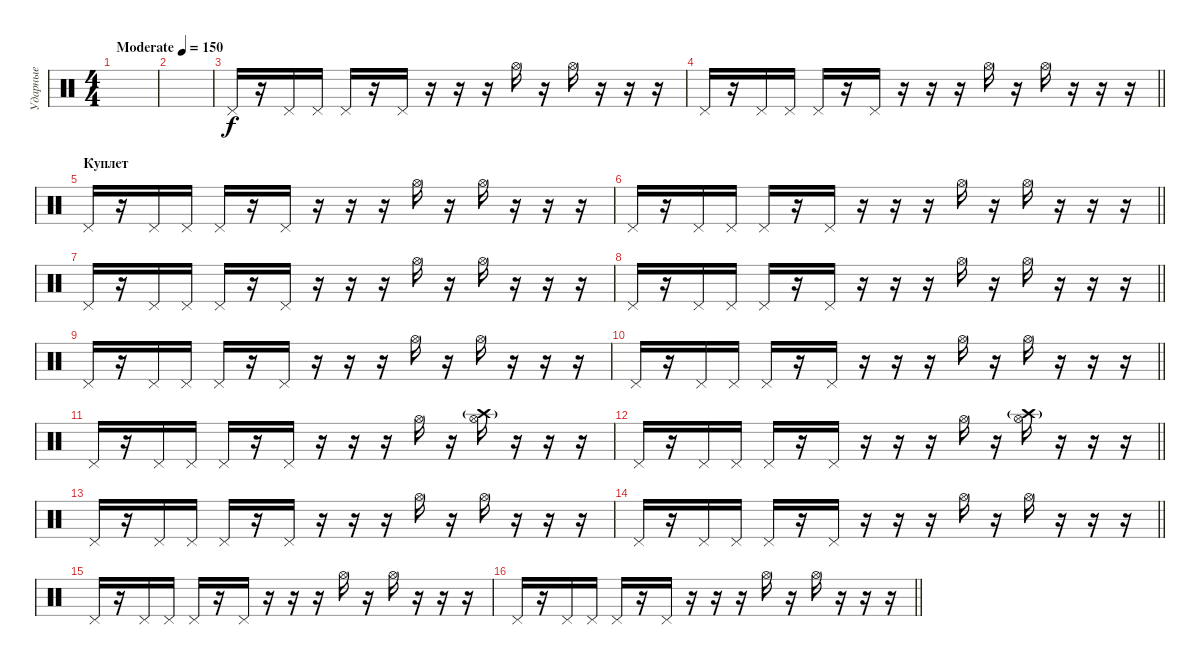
\track ("Ударные" "Ударные") {instrument percussion}
\staff {score}
\articulation defaults
\ts (4 4)
\tempo (150 "Moderate")
\clef neutral
\ks c
|
|
"Pedal Hi-Hat (hit)".16 r.16 "Pedal Hi-Hat (hit)".16 "Pedal Hi-Hat (hit)".16 "Pedal Hi-Hat (hit)".16 r.16 "Pedal Hi-Hat (hit)".16 r.16 r.16 r.16 "Hi-Hat (open)".16 r.16 "Hi-Hat (open)".16 r.16 r.16 r.16 |
\barLineRight lightlight "Pedal Hi-Hat (hit)".16
r.16 "Pedal Hi-Hat (hit)".16 "Pedal Hi-Hat (hit)".16 "Pedal Hi-Hat (hit)".16 r.16 "Pedal Hi-Hat (hit)".16 r.16 r.16 r.16 "Hi-Hat (open)".16 r.16 "Hi-Hat (open)".16 r.16 r.16 r.16 |
\section ("" "Куплет")
"Pedal Hi-Hat (hit)".16 r.16 "Pedal Hi-Hat (hit)".16 "Pedal Hi-Hat (hit)".16 "Pedal Hi-Hat (hit)".16 r.16 "Pedal Hi-Hat (hit)".16 r.16 r.16 r.16 "Hi-Hat (open)".16 r.16 "Hi-Hat (open)".16 r.16 r.16 r.16 |
\barLineRight lightlight "Pedal Hi-Hat (hit)".16
r.16 "Pedal Hi-Hat (hit)".16 "Pedal Hi-Hat (hit)".16 "Pedal Hi-Hat (hit)".16 r.16 "Pedal Hi-Hat (hit)".16 r.16 r.16 r.16 "Hi-Hat (open)".16 r.16 "Hi-Hat (open)".16 r.16 r.16 r.16 |
"Pedal Hi-Hat (hit)".16 r.16 "Pedal Hi-Hat (hit)".16 "Pedal Hi-Hat (hit)".16 "Pedal Hi-Hat (hit)".16 r.16 "Pedal Hi-Hat (hit)".16 r.16 r.16 r.16 "Hi-Hat (open)".16 r.16 "Hi-Hat (open)".16 r.16 r.16 r.16 |
\barLineRight lightlight "Pedal Hi-Hat (hit)".16
r.16 "Pedal Hi-Hat (hit)".16 "Pedal Hi-Hat (hit)".16 "Pedal Hi-Hat (hit)".16 r.16 "Pedal Hi-Hat (hit)".16 r.16 r.16 r.16 "Hi-Hat (open)".16 r.16 "Hi-Hat (open)".16 r.16 r.16 r.16 |
"Pedal Hi-Hat (hit)".16 r.16 "Pedal Hi-Hat (hit)".16 "Pedal Hi-Hat (hit)".16 "Pedal Hi-Hat (hit)".16 r.16 "Pedal Hi-Hat (hit)".16 r.16 r.16 r.16 "Hi-Hat (open)".16 r.16 "Hi-Hat (open)".16 r.16 r.16 r.16 |
\barLineRight lightlight "Pedal Hi-Hat (hit)".16
r.16 "Pedal Hi-Hat (hit)".16 "Pedal Hi-Hat (hit)".16 "Pedal Hi-Hat (hit)".16 r.16 "Pedal Hi-Hat (hit)".16 r.16 r.16 r.16 "Hi-Hat (open)".16 r.16 "Hi-Hat (open)".16 r.16 r.16 r.16 |
"Pedal Hi-Hat (hit)".16 r.16 "Pedal Hi-Hat (hit)".16 "Pedal Hi-Hat (hit)".16 "Pedal Hi-Hat (hit)".16 r.16 "Pedal Hi-Hat (hit)".16 r.16 r.16 r.16 "Hi-Hat (open)".16 r.16 ("Crash high (hit)"{g} "Hi-Hat (open)").16 r.16 r.16 r.16 |
\barLineRight lightlight "Pedal Hi-Hat (hit)".16
r.16 "Pedal Hi-Hat (hit)".16 "Pedal Hi-Hat (hit)".16 "Pedal Hi-Hat (hit)".16 r.16 "Pedal Hi-Hat (hit)".16 r.16 r.16 r.16 "Hi-Hat (open)".16 r.16 ("Crash high (hit)"{g} "Hi-Hat (open)").16 r.16 r.16 r.16 |
"Pedal Hi-Hat (hit)".16 r.16 "Pedal Hi-Hat (hit)".16 "Pedal Hi-Hat (hit)".16 "Pedal Hi-Hat (hit)".16 r.16 "Pedal Hi-Hat (hit)".16 r.16 r.16 r.16 "Hi-Hat (open)".16 r.16 "Hi-Hat (open)".16 r.16 r.16 r.16 |
\barLineRight lightlight "Pedal Hi-Hat (hit)".16
r.16 "Pedal Hi-Hat (hit)".16 "Pedal Hi-Hat (hit)".16 "Pedal Hi-Hat (hit)".16 r.16 "Pedal Hi-Hat (hit)".16 r.16 r.16 r.16 "Hi-Hat (open)".16 r.16 "Hi-Hat (open)".16 r.16 r.16 r.16 |
"Pedal Hi-Hat (hit)".16 r.16 "Pedal Hi-Hat (hit)".16 "Pedal Hi-Hat (hit)".16 "Pedal Hi-Hat (hit)".16 r.16 "Pedal Hi-Hat (hit)".16 r.16 r.16 r.16 "Hi-Hat (open)".16 r.16 "Hi-Hat (open)".16 r.16 r.16 r.16 |
\barLineRight lightlight "Pedal Hi-Hat (hit)".16
r.16 "Pedal Hi-Hat (hit)".16 "Pedal Hi-Hat (hit)".16 "Pedal Hi-Hat (hit)".16 r.16 "Pedal Hi-Hat (hit)".16 r.16 r.16 r.16 "Hi-Hat (open)".16 r.16 "Hi-Hat (open)".16 r.16 r.16 r.16
